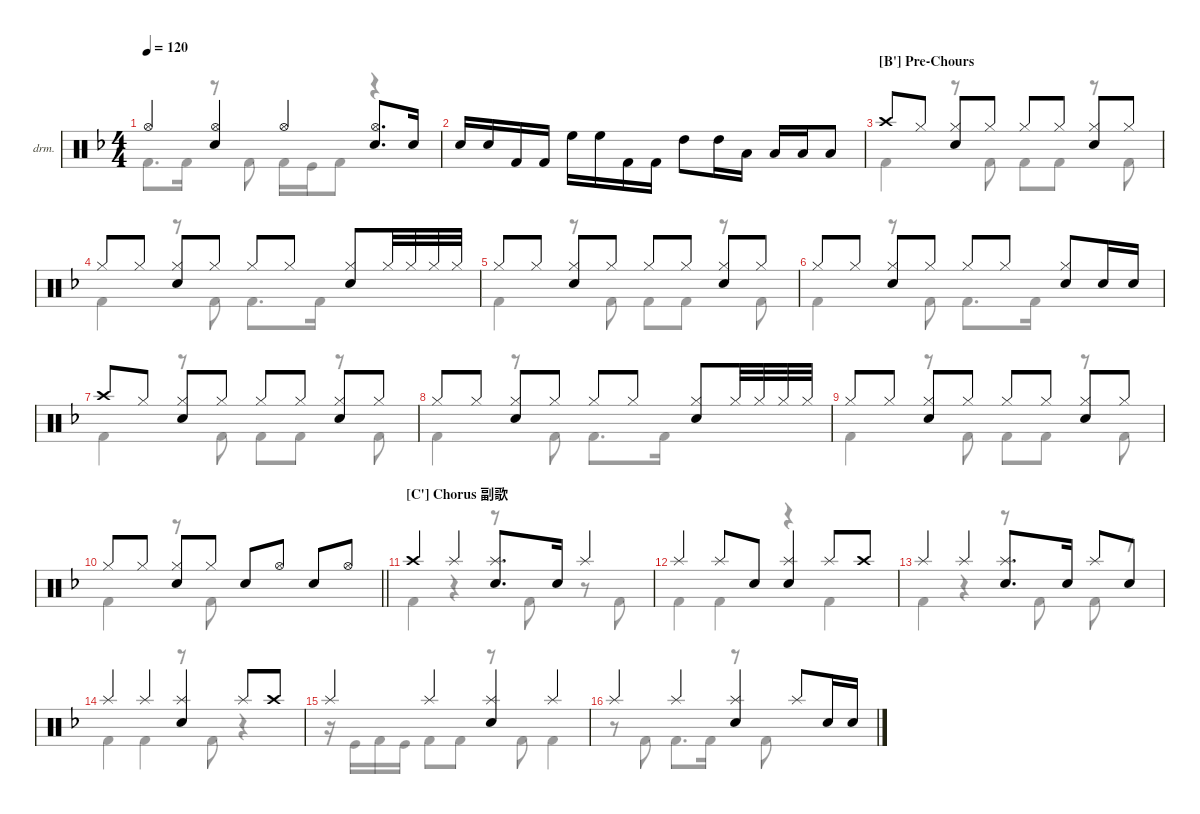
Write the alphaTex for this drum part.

\defaultSystemsLayout 4
\hideDynamics
\bracketExtendMode nobrackets
\firstSystemTrackNameOrientation horizontal
\track ("Drumkit" "drm.") {defaultSystemsLayout 4 instrument percussion}
\staff {score}
\articulation defaults
\voice
\ts (4 4)
\tempo 120
\clef neutral
\ks dminor "Hi-Hat (open)"{acc forcenatural}.4{dy mf beam Up}
("Hi-Hat (open)"{acc forcenatural} "Snare (hit) 2"{acc forcenatural}).4{beam Up} "Hi-Hat (open)"{acc forcenatural}.4{beam Up} ("Hi-Hat (open)"{acc forcenatural} "Snare (hit) 2"{acc forcenatural}).8{d beam Up} "Snare (hit) 2"{acc forcenatural}.16{beam Up} |
"Snare (hit) 2"{acc forcenatural}.16{beam Up} "Snare (hit) 2"{acc forcenatural}.16{beam Up} "Kick (hit) 2"{acc forcenatural}.16{beam Up} "Kick (hit) 2"{acc forcenatural}.16{beam Up} "High Floor Tom (hit)"{acc forcenatural}.16{beam Down} "High Floor Tom (hit)"{acc forcenatural}.16{beam Down} "Kick (hit) 2"{acc forcenatural}.16{beam Down} "Kick (hit) 2"{acc forcenatural}.16{beam Down} "High Tom (hit)"{acc forcenatural}.8{beam Down} "High Tom (hit)"{acc forcenatural}.16{beam Down} "Low Tom (hit)"{acc forcenatural}.16{beam Down} "Low Tom (hit)"{acc forcenatural}.16{beam Up} "Low Tom (hit)"{acc forcenatural}.16{beam Up} "Low Tom (hit)"{acc forcenatural}.8{beam Up} |
\section ("B'" "Pre-Chours")
"Crash high (hit)"{acc forcenatural}.8{beam Up} "Hi-Hat (closed)"{acc forcenatural}.8{beam Up} ("Hi-Hat (closed)"{acc forcenatural} "Snare (hit) 2"{acc forcenatural}).8{beam Up} "Hi-Hat (closed)"{acc forcenatural}.8{beam Up} "Hi-Hat (closed)"{acc forcenatural}.8{beam Up} "Hi-Hat (closed)"{acc forcenatural}.8{beam Up} ("Hi-Hat (closed)"{acc forcenatural} "Snare (hit) 2"{acc forcenatural}).8{beam Up} "Hi-Hat (closed)"{acc forcenatural}.8{beam Up} |
"Hi-Hat (closed)"{acc forcenatural}.8{beam Up} "Hi-Hat (closed)"{acc forcenatural}.8{beam Up} ("Hi-Hat (closed)"{acc forcenatural} "Snare (hit) 2"{acc forcenatural}).8{beam Up} "Hi-Hat (closed)"{acc forcenatural}.8{beam Up} "Hi-Hat (closed)"{acc forcenatural}.8{beam Up} "Hi-Hat (closed)"{acc forcenatural}.8{beam Up} ("Hi-Hat (closed)"{acc forcenatural} "Snare (hit) 2"{acc forcenatural}).8{beam Up} "Hi-Hat (closed)"{acc forcenatural}.32{beam Up} "Hi-Hat (closed)"{acc forcenatural}.32{beam Up} "Hi-Hat (closed)"{acc forcenatural}.32{beam Up} "Hi-Hat (closed)"{acc forcenatural}.32{beam Up} |
"Hi-Hat (closed)"{acc forcenatural}.8{beam Up} "Hi-Hat (closed)"{acc forcenatural}.8{beam Up} ("Hi-Hat (closed)"{acc forcenatural} "Snare (hit) 2"{acc forcenatural}).8{beam Up} "Hi-Hat (closed)"{acc forcenatural}.8{beam Up} "Hi-Hat (closed)"{acc forcenatural}.8{beam Up} "Hi-Hat (closed)"{acc forcenatural}.8{beam Up} ("Hi-Hat (closed)"{acc forcenatural} "Snare (hit) 2"{acc forcenatural}).8{beam Up} "Hi-Hat (closed)"{acc forcenatural}.8{beam Up} |
"Hi-Hat (closed)"{acc forcenatural}.8{beam Up} "Hi-Hat (closed)"{acc forcenatural}.8{beam Up} ("Hi-Hat (closed)"{acc forcenatural} "Snare (hit) 2"{acc forcenatural}).8{beam Up} "Hi-Hat (closed)"{acc forcenatural}.8{beam Up} "Hi-Hat (closed)"{acc forcenatural}.8{beam Up} "Hi-Hat (closed)"{acc forcenatural}.8{beam Up} ("Hi-Hat (closed)"{acc forcenatural} "Snare (hit) 2"{acc forcenatural}).8{beam Up} "Snare (hit) 2"{acc forcenatural}.16{beam Up} "Snare (hit) 2"{acc forcenatural}.16{beam Up} |
"Crash high (hit)"{acc forcenatural}.8{beam Up} "Hi-Hat (closed)"{acc forcenatural}.8{beam Up} ("Hi-Hat (closed)"{acc forcenatural} "Snare (hit) 2"{acc forcenatural}).8{beam Up} "Hi-Hat (closed)"{acc forcenatural}.8{beam Up} "Hi-Hat (closed)"{acc forcenatural}.8{beam Up} "Hi-Hat (closed)"{acc forcenatural}.8{beam Up} ("Hi-Hat (closed)"{acc forcenatural} "Snare (hit) 2"{acc forcenatural}).8{beam Up} "Hi-Hat (closed)"{acc forcenatural}.8{beam Up} |
"Hi-Hat (closed)"{acc forcenatural}.8{beam Up} "Hi-Hat (closed)"{acc forcenatural}.8{beam Up} ("Hi-Hat (closed)"{acc forcenatural} "Snare (hit) 2"{acc forcenatural}).8{beam Up} "Hi-Hat (closed)"{acc forcenatural}.8{beam Up} "Hi-Hat (closed)"{acc forcenatural}.8{beam Up} "Hi-Hat (closed)"{acc forcenatural}.8{beam Up} ("Hi-Hat (closed)"{acc forcenatural} "Snare (hit) 2"{acc forcenatural}).8{beam Up} "Hi-Hat (closed)"{acc forcenatural}.32{beam Up} "Hi-Hat (closed)"{acc forcenatural}.32{beam Up} "Hi-Hat (closed)"{acc forcenatural}.32{beam Up} "Hi-Hat (closed)"{acc forcenatural}.32{beam Up} |
"Hi-Hat (closed)"{acc forcenatural}.8{beam Up} "Hi-Hat (closed)"{acc forcenatural}.8{beam Up} ("Hi-Hat (closed)"{acc forcenatural} "Snare (hit) 2"{acc forcenatural}).8{beam Up} "Hi-Hat (closed)"{acc forcenatural}.8{beam Up} "Hi-Hat (closed)"{acc forcenatural}.8{beam Up} "Hi-Hat (closed)"{acc forcenatural}.8{beam Up} ("Hi-Hat (closed)"{acc forcenatural} "Snare (hit) 2"{acc forcenatural}).8{beam Up} "Hi-Hat (closed)"{acc forcenatural}.8{beam Up} |
\barLineRight lightlight "Hi-Hat (closed)"{acc forcenatural}.8{beam Up} "Hi-Hat (closed)"{acc forcenatural}.8{beam Up}
("Hi-Hat (closed)"{acc forcenatural} "Snare (hit) 2"{acc forcenatural}).8{beam Up} "Hi-Hat (closed)"{acc forcenatural}.8{beam Up} "Snare (hit) 2"{acc forcenatural}.8{beam Up} "Hi-Hat (open)"{acc forcenatural}.8{beam Up} "Snare (hit) 2"{acc forcenatural}.8{beam Up} "Hi-Hat (open)"{acc forcenatural}.8{beam Up} |
\section ("C'" "Chorus 副歌")
"Crash high (hit)"{acc forcenatural}.4{beam Up} "Splash (hit)"{acc forcenatural}.4{beam Up} ("Snare (hit) 2"{acc forcenatural} "Splash (hit)"{acc forcenatural}).8{d beam Up} "Snare (hit) 2"{acc forcenatural}.16{beam Up} "Splash (hit)"{acc forcenatural}.4{beam Up} |
"Splash (hit)"{acc forcenatural}.4{beam Up} "Splash (hit)"{acc forcenatural}.8{beam Up} "Snare (hit) 2"{acc forcenatural}.8{beam Up} ("Snare (hit) 2"{acc forcenatural} "Splash (hit)"{acc forcenatural}).4{beam Up} "Splash (hit)"{acc forcenatural}.8{beam Up} "Crash high (hit)"{acc forcenatural}.8{beam Up} |
"Splash (hit)"{acc forcenatural}.4{beam Up} "Splash (hit)"{acc forcenatural}.4{beam Up} ("Snare (hit) 2"{acc forcenatural} "Splash (hit)"{acc forcenatural}).8{d beam Up} "Snare (hit) 2"{acc forcenatural}.16{beam Up} "Splash (hit)"{acc forcenatural}.8{beam Up} "Snare (hit) 2"{acc forcenatural}.8{beam Up} |
"Splash (hit)"{acc forcenatural}.4{beam Up} "Splash (hit)"{acc forcenatural}.4{beam Up} ("Snare (hit) 2"{acc forcenatural} "Splash (hit)"{acc forcenatural}).4{beam Up} "Splash (hit)"{acc forcenatural}.8{beam Up} "Crash high (hit)"{acc forcenatural}.8{beam Up} |
"Splash (hit)"{acc forcenatural}.4{beam Up} "Splash (hit)"{acc forcenatural}.4{beam Up} ("Snare (hit) 2"{acc forcenatural} "Splash (hit)"{acc forcenatural}).4{beam Up} "Splash (hit)"{acc forcenatural}.4{beam Up} |
"Splash (hit)"{acc forcenatural}.4{beam Up} "Splash (hit)"{acc forcenatural}.4{beam Up} ("Snare (hit) 2"{acc forcenatural} "Splash (hit)"{acc forcenatural}).4{beam Up} "Splash (hit)"{acc forcenatural}.8{beam Up} "Snare (hit) 2"{acc forcenatural}.16{beam Up} "Snare (hit) 2"{acc forcenatural}.16{beam Up}
\voice
\clef neutral
\ottava regular
\simile none
\ks dminor "Kick (hit) 2"{acc forcenatural}.8{d dy mf beam Down} "Kick (hit) 2"{acc forcenatural}.16{beam Down}
r.8{beam Down} "Kick (hit) 2"{acc forcenatural}.8{beam Down} "Kick (hit) 2"{acc forcenatural}.16{beam Down} "Kick (hit)"{acc forcenatural}.16{beam Down} "Kick (hit) 2"{acc forcenatural}.8{beam Down} r.4{beam Down} |
|
"Kick (hit) 2"{acc forcenatural}.4{beam Down} r.8{beam Down} "Kick (hit) 2"{acc forcenatural}.8{beam Down} "Kick (hit) 2"{acc forcenatural}.8{beam Down} "Kick (hit) 2"{acc forcenatural}.8{beam Down} r.8{beam Down} "Kick (hit) 2"{acc forcenatural}.8{beam Down} |
"Kick (hit) 2"{acc forcenatural}.4{beam Down} r.8{beam Down} "Kick (hit) 2"{acc forcenatural}.8{beam Down} "Kick (hit) 2"{acc forcenatural}.8{d beam Down} "Kick (hit) 2"{acc forcenatural}.16{beam Down} |
"Kick (hit) 2"{acc forcenatural}.4{beam Down} r.8{beam Down} "Kick (hit) 2"{acc forcenatural}.8{beam Down} "Kick (hit) 2"{acc forcenatural}.8{beam Down} "Kick (hit) 2"{acc forcenatural}.8{beam Down} r.8{beam Down} "Kick (hit) 2"{acc forcenatural}.8{beam Down} |
"Kick (hit) 2"{acc forcenatural}.4{beam Down} r.8{beam Down} "Kick (hit) 2"{acc forcenatural}.8{beam Down} "Kick (hit) 2"{acc forcenatural}.8{d beam Down} "Kick (hit) 2"{acc forcenatural}.16{beam Down} |
"Kick (hit) 2"{acc forcenatural}.4{beam Down} r.8{beam Down} "Kick (hit) 2"{acc forcenatural}.8{beam Down} "Kick (hit) 2"{acc forcenatural}.8{beam Down} "Kick (hit) 2"{acc forcenatural}.8{beam Down} r.8{beam Down} "Kick (hit) 2"{acc forcenatural}.8{beam Down} |
"Kick (hit) 2"{acc forcenatural}.4{beam Down} r.8{beam Down} "Kick (hit) 2"{acc forcenatural}.8{beam Down} "Kick (hit) 2"{acc forcenatural}.8{d beam Down} "Kick (hit) 2"{acc forcenatural}.16{beam Down} |
"Kick (hit) 2"{acc forcenatural}.4{beam Down} r.8{beam Down} "Kick (hit) 2"{acc forcenatural}.8{beam Down} "Kick (hit) 2"{acc forcenatural}.8{beam Down} "Kick (hit) 2"{acc forcenatural}.8{beam Down} r.8{beam Down} "Kick (hit) 2"{acc forcenatural}.8{beam Down} |
\barLineRight lightlight "Kick (hit) 2"{acc forcenatural}.4{beam Down}
r.8{beam Down} "Kick (hit) 2"{acc forcenatural}.8{beam Down} |
"Kick (hit) 2"{acc forcenatural}.4{beam Down} r.4{beam Down} r.8{beam Down} "Kick (hit) 2"{acc forcenatural}.8{beam Down} r.8{beam Down} "Kick (hit) 2"{acc forcenatural}.8{beam Down} |
"Kick (hit) 2"{acc forcenatural}.4{beam Down} "Kick (hit) 2"{acc forcenatural}.4{beam Down} r.4{beam Down} "Kick (hit) 2"{acc forcenatural}.4{beam Down} |
"Kick (hit) 2"{acc forcenatural}.4{beam Down} r.4{beam Down} r.8{beam Down} "Kick (hit) 2"{acc forcenatural}.8{beam Down} "Kick (hit) 2"{acc forcenatural}.8{beam Down} r.8{beam Down} |
"Kick (hit) 2"{acc forcenatural}.4{beam Down} "Kick (hit) 2"{acc forcenatural}.4{beam Down} r.8{beam Down} "Kick (hit) 2"{acc forcenatural}.8{beam Down} r.4{beam Down} |
r.16{beam Down} "Kick (hit)"{acc forcenatural}.16{beam Down} "Kick (hit) 2"{acc forcenatural}.16{beam Down} "Kick (hit)"{acc forcenatural}.16{beam Down} "Kick (hit) 2"{acc forcenatural}.8{beam Down} "Kick (hit) 2"{acc forcenatural}.8{beam Down} r.8{beam Down} "Kick (hit) 2"{acc forcenatural}.8{beam Down} "Kick (hit) 2"{acc forcenatural}.4{beam Down} |
r.8{beam Down} "Kick (hit) 2"{acc forcenatural}.8{beam Down} "Kick (hit) 2"{acc forcenatural}.8{d beam Down} "Kick (hit) 2"{acc forcenatural}.16{beam Down} r.8{beam Down} "Kick (hit) 2"{acc forcenatural}.8{beam Down}
